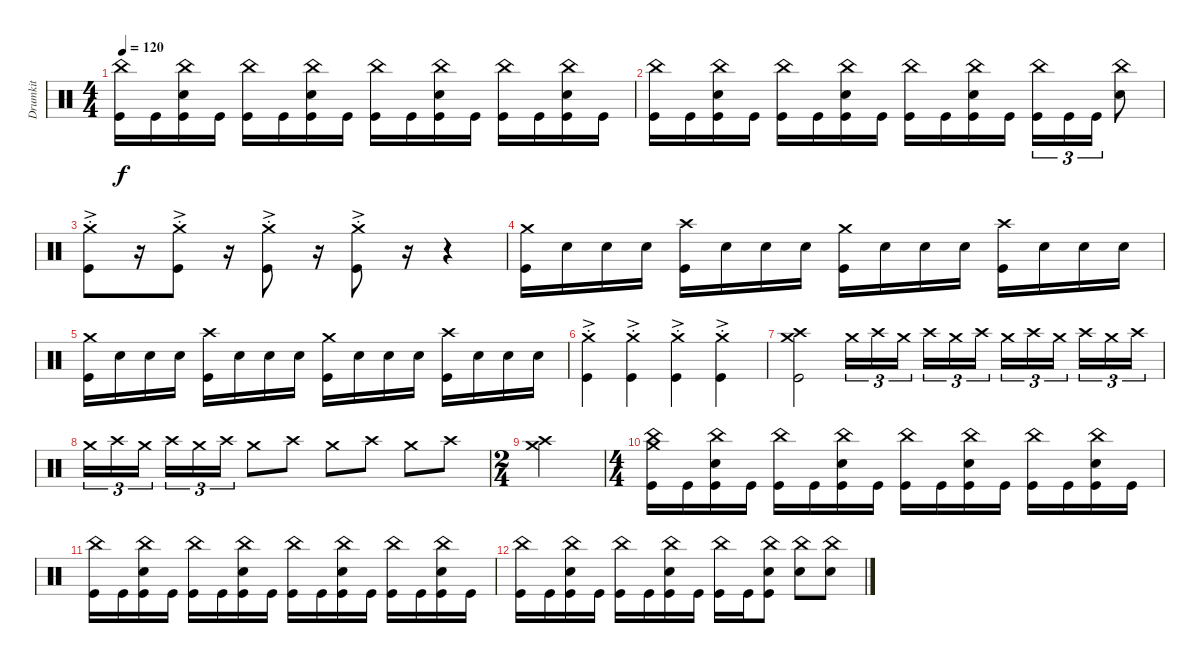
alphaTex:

\track ("Drumkit" "Drumkit") {instrument percussion}
\staff {score}
\articulation defaults
\ts (4 4)
\tempo 120
\clef neutral
\ks c
("China (hit)" "Kick (hit)").16{dy f} "Kick (hit)".16 ("Kick (hit)" "Snare (hit) 2" "China (hit)").16 "Kick (hit)".16 ("Kick (hit)" "China (hit)").16 "Kick (hit)".16 ("Kick (hit)" "Snare (hit) 2" "China (hit)").16 "Kick (hit)".16 ("Kick (hit)" "China (hit)").16 "Kick (hit)".16 ("Kick (hit)" "Snare (hit) 2" "China (hit)").16 "Kick (hit)".16 ("Kick (hit)" "China (hit)").16 "Kick (hit)".16 ("Kick (hit)" "Snare (hit) 2" "China (hit)").16 "Kick (hit)".16 |
("China (hit)" "Kick (hit)").16 "Kick (hit)".16 ("Kick (hit)" "Snare (hit) 2" "China (hit)").16 "Kick (hit)".16 ("Kick (hit)" "China (hit)").16 "Kick (hit)".16 ("Kick (hit)" "Snare (hit) 2" "China (hit)").16 "Kick (hit)".16 ("Kick (hit)" "China (hit)").16 "Kick (hit)".16 ("Kick (hit)" "Snare (hit) 2" "China (hit)").16 "Kick (hit)".16 ("Kick (hit)" "China (hit)").16{tu (3 2)} "Kick (hit)".16{tu (3 2)} "Kick (hit)".16{tu (3 2)} ("Snare (hit) 2" "China (hit)").8 |
("Kick (hit)" "Crash medium (hit)"{ac st}).8 r.16 ("Kick (hit)" "Crash medium (hit)"{ac st}).8 r.16 ("Kick (hit)" "Crash medium (hit)"{ac st}).8 r.16 ("Kick (hit)" "Crash medium (hit)"{ac st}).8 r.16 r.4 |
("Crash medium (hit)" "Kick (hit)").16 "Snare (hit) 2".16 "Snare (hit) 2".16 "Snare (hit) 2".16 ("Kick (hit)" "Crash high (hit)").16 "Snare (hit) 2".16 "Snare (hit) 2".16 "Snare (hit) 2".16 ("Crash medium (hit)" "Kick (hit)").16 "Snare (hit) 2".16 "Snare (hit) 2".16 "Snare (hit) 2".16 ("Kick (hit)" "Crash high (hit)").16 "Snare (hit) 2".16 "Snare (hit) 2".16 "Snare (hit) 2".16 |
("Crash medium (hit)" "Kick (hit)").16 "Snare (hit) 2".16 "Snare (hit) 2".16 "Snare (hit) 2".16 ("Kick (hit)" "Crash high (hit)").16 "Snare (hit) 2".16 "Snare (hit) 2".16 "Snare (hit) 2".16 ("Crash medium (hit)" "Kick (hit)").16 "Snare (hit) 2".16 "Snare (hit) 2".16 "Snare (hit) 2".16 ("Kick (hit)" "Crash high (hit)").16 "Snare (hit) 2".16 "Snare (hit) 2".16 "Snare (hit) 2".16 |
("Kick (hit)" "Crash medium (hit)"{ac st}).4 ("Kick (hit)" "Crash medium (hit)"{ac st}).4 ("Kick (hit)" "Crash medium (hit)"{ac st}).4 ("Kick (hit)" "Crash medium (hit)"{ac st}).4 |
("Kick (hit)" "Crash medium (hit)" "Crash high (hit)").2 "Crash medium (hit)".16{tu (3 2)} "Crash high (hit)".16{tu (3 2)} "Crash medium (hit)".16{tu (3 2) beam splitsecondary} "Crash high (hit)".16{tu (3 2)} "Crash medium (hit)".16{tu (3 2)} "Crash high (hit)".16{tu (3 2)} "Crash medium (hit)".16{tu (3 2)} "Crash high (hit)".16{tu (3 2)} "Crash medium (hit)".16{tu (3 2) beam splitsecondary} "Crash high (hit)".16{tu (3 2)} "Crash medium (hit)".16{tu (3 2)} "Crash high (hit)".16{tu (3 2)} |
"Crash medium (hit)".16{tu (3 2)} "Crash high (hit)".16{tu (3 2)} "Crash medium (hit)".16{tu (3 2) beam splitsecondary} "Crash high (hit)".16{tu (3 2)} "Crash medium (hit)".16{tu (3 2)} "Crash high (hit)".16{tu (3 2)} "Crash medium (hit)".8 "Crash high (hit)".8 "Crash medium (hit)".8 "Crash high (hit)".8 "Crash medium (hit)".8 "Crash high (hit)".8 |
\ts (2 4)
("Crash medium (hit)" "Crash high (hit)").2 |
\ts (4 4)
("China (hit)" "Kick (hit)" "Crash medium (hit)").16 "Kick (hit)".16 ("Kick (hit)" "Snare (hit) 2" "China (hit)").16 "Kick (hit)".16 ("Kick (hit)" "China (hit)").16 "Kick (hit)".16 ("Kick (hit)" "Snare (hit) 2" "China (hit)").16 "Kick (hit)".16 ("China (hit)" "Kick (hit)").16 "Kick (hit)".16 ("Kick (hit)" "Snare (hit) 2" "China (hit)").16 "Kick (hit)".16 ("Kick (hit)" "China (hit)").16 "Kick (hit)".16 ("Kick (hit)" "Snare (hit) 2" "China (hit)").16 "Kick (hit)".16 |
("China (hit)" "Kick (hit)").16 "Kick (hit)".16 ("Kick (hit)" "Snare (hit) 2" "China (hit)").16 "Kick (hit)".16 ("Kick (hit)" "China (hit)").16 "Kick (hit)".16 ("Kick (hit)" "Snare (hit) 2" "China (hit)").16 "Kick (hit)".16 ("Kick (hit)" "China (hit)").16 "Kick (hit)".16 ("Kick (hit)" "Snare (hit) 2" "China (hit)").16 "Kick (hit)".16 ("Kick (hit)" "China (hit)").16 "Kick (hit)".16 ("Kick (hit)" "Snare (hit) 2" "China (hit)").16 "Kick (hit)".16 |
("China (hit)" "Kick (hit)").16 "Kick (hit)".16 ("Kick (hit)" "Snare (hit) 2" "China (hit)").16 "Kick (hit)".16 ("Kick (hit)" "China (hit)").16 "Kick (hit)".16 ("Kick (hit)" "Snare (hit) 2" "China (hit)").16 "Kick (hit)".16 ("Kick (hit)" "China (hit)").16 "Kick (hit)".16 ("Kick (hit)" "Snare (hit) 2" "China (hit)").8 ("Snare (hit) 2" "China (hit)").8 ("Snare (hit) 2" "China (hit)").8
